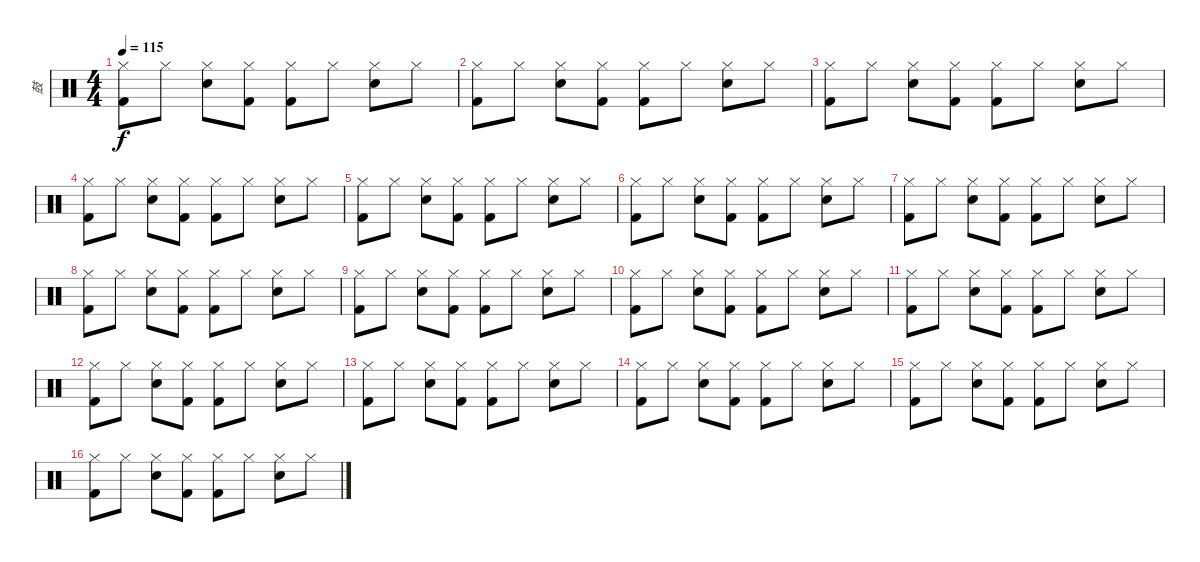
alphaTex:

\track ("鼓" "鼓") {instrument percussion}
\staff {score}
\articulation defaults
\ts (4 4)
\tempo 115
\clef neutral
\ks c
("Hi-Hat (closed)" "Kick (hit) 2").8{dy f} "Hi-Hat (closed)".8 ("Hi-Hat (closed)" "Electric Snare (hit)").8 ("Hi-Hat (closed)" "Kick (hit) 2").8 ("Hi-Hat (closed)" "Kick (hit) 2").8 "Hi-Hat (closed)".8 ("Hi-Hat (closed)" "Electric Snare (hit)").8 "Hi-Hat (closed)".8 |
("Hi-Hat (closed)" "Kick (hit) 2").8 "Hi-Hat (closed)".8 ("Hi-Hat (closed)" "Electric Snare (hit)").8 ("Hi-Hat (closed)" "Kick (hit) 2").8 ("Hi-Hat (closed)" "Kick (hit) 2").8 "Hi-Hat (closed)".8 ("Hi-Hat (closed)" "Electric Snare (hit)").8 "Hi-Hat (closed)".8 |
("Hi-Hat (closed)" "Kick (hit) 2").8 "Hi-Hat (closed)".8 ("Hi-Hat (closed)" "Electric Snare (hit)").8 ("Hi-Hat (closed)" "Kick (hit) 2").8 ("Hi-Hat (closed)" "Kick (hit) 2").8 "Hi-Hat (closed)".8 ("Hi-Hat (closed)" "Electric Snare (hit)").8 "Hi-Hat (closed)".8 |
("Hi-Hat (closed)" "Kick (hit) 2").8 "Hi-Hat (closed)".8 ("Hi-Hat (closed)" "Electric Snare (hit)").8 ("Hi-Hat (closed)" "Kick (hit) 2").8 ("Hi-Hat (closed)" "Kick (hit) 2").8 "Hi-Hat (closed)".8 ("Hi-Hat (closed)" "Electric Snare (hit)").8 "Hi-Hat (closed)".8 |
("Hi-Hat (closed)" "Kick (hit) 2").8 "Hi-Hat (closed)".8 ("Hi-Hat (closed)" "Electric Snare (hit)").8 ("Hi-Hat (closed)" "Kick (hit) 2").8 ("Hi-Hat (closed)" "Kick (hit) 2").8 "Hi-Hat (closed)".8 ("Hi-Hat (closed)" "Electric Snare (hit)").8 "Hi-Hat (closed)".8 |
("Hi-Hat (closed)" "Kick (hit) 2").8 "Hi-Hat (closed)".8 ("Hi-Hat (closed)" "Electric Snare (hit)").8 ("Hi-Hat (closed)" "Kick (hit) 2").8 ("Hi-Hat (closed)" "Kick (hit) 2").8 "Hi-Hat (closed)".8 ("Hi-Hat (closed)" "Electric Snare (hit)").8 "Hi-Hat (closed)".8 |
("Hi-Hat (closed)" "Kick (hit) 2").8 "Hi-Hat (closed)".8 ("Hi-Hat (closed)" "Electric Snare (hit)").8 ("Hi-Hat (closed)" "Kick (hit) 2").8 ("Hi-Hat (closed)" "Kick (hit) 2").8 "Hi-Hat (closed)".8 ("Hi-Hat (closed)" "Electric Snare (hit)").8 "Hi-Hat (closed)".8 |
("Hi-Hat (closed)" "Kick (hit) 2").8 "Hi-Hat (closed)".8 ("Hi-Hat (closed)" "Electric Snare (hit)").8 ("Hi-Hat (closed)" "Kick (hit) 2").8 ("Hi-Hat (closed)" "Kick (hit) 2").8 "Hi-Hat (closed)".8 ("Hi-Hat (closed)" "Electric Snare (hit)").8 "Hi-Hat (closed)".8 |
("Hi-Hat (closed)" "Kick (hit) 2").8 "Hi-Hat (closed)".8 ("Hi-Hat (closed)" "Electric Snare (hit)").8 ("Hi-Hat (closed)" "Kick (hit) 2").8 ("Hi-Hat (closed)" "Kick (hit) 2").8 "Hi-Hat (closed)".8 ("Hi-Hat (closed)" "Electric Snare (hit)").8 "Hi-Hat (closed)".8 |
("Hi-Hat (closed)" "Kick (hit) 2").8 "Hi-Hat (closed)".8 ("Hi-Hat (closed)" "Electric Snare (hit)").8 ("Hi-Hat (closed)" "Kick (hit) 2").8 ("Hi-Hat (closed)" "Kick (hit) 2").8 "Hi-Hat (closed)".8 ("Hi-Hat (closed)" "Electric Snare (hit)").8 "Hi-Hat (closed)".8 |
("Hi-Hat (closed)" "Kick (hit) 2").8 "Hi-Hat (closed)".8 ("Hi-Hat (closed)" "Electric Snare (hit)").8 ("Hi-Hat (closed)" "Kick (hit) 2").8 ("Hi-Hat (closed)" "Kick (hit) 2").8 "Hi-Hat (closed)".8 ("Hi-Hat (closed)" "Electric Snare (hit)").8 "Hi-Hat (closed)".8 |
("Hi-Hat (closed)" "Kick (hit) 2").8{volume 12} "Hi-Hat (closed)".8 ("Hi-Hat (closed)" "Electric Snare (hit)").8 ("Hi-Hat (closed)" "Kick (hit) 2").8 ("Hi-Hat (closed)" "Kick (hit) 2").8 "Hi-Hat (closed)".8 ("Hi-Hat (closed)" "Electric Snare (hit)").8 "Hi-Hat (closed)".8 |
("Hi-Hat (closed)" "Kick (hit) 2").8{volume 11} "Hi-Hat (closed)".8 ("Hi-Hat (closed)" "Electric Snare (hit)").8 ("Hi-Hat (closed)" "Kick (hit) 2").8 ("Hi-Hat (closed)" "Kick (hit) 2").8 "Hi-Hat (closed)".8 ("Hi-Hat (closed)" "Electric Snare (hit)").8 "Hi-Hat (closed)".8 |
("Hi-Hat (closed)" "Kick (hit) 2").8{volume 10} "Hi-Hat (closed)".8 ("Hi-Hat (closed)" "Electric Snare (hit)").8 ("Hi-Hat (closed)" "Kick (hit) 2").8 ("Hi-Hat (closed)" "Kick (hit) 2").8 "Hi-Hat (closed)".8 ("Hi-Hat (closed)" "Electric Snare (hit)").8 "Hi-Hat (closed)".8 |
("Hi-Hat (closed)" "Kick (hit) 2").8{volume 9} "Hi-Hat (closed)".8 ("Hi-Hat (closed)" "Electric Snare (hit)").8 ("Hi-Hat (closed)" "Kick (hit) 2").8 ("Hi-Hat (closed)" "Kick (hit) 2").8 "Hi-Hat (closed)".8 ("Hi-Hat (closed)" "Electric Snare (hit)").8 "Hi-Hat (closed)".8 |
("Hi-Hat (closed)" "Kick (hit) 2").8{volume 8} "Hi-Hat (closed)".8 ("Hi-Hat (closed)" "Electric Snare (hit)").8 ("Hi-Hat (closed)" "Kick (hit) 2").8 ("Hi-Hat (closed)" "Kick (hit) 2").8 "Hi-Hat (closed)".8 ("Hi-Hat (closed)" "Electric Snare (hit)").8 "Hi-Hat (closed)".8
